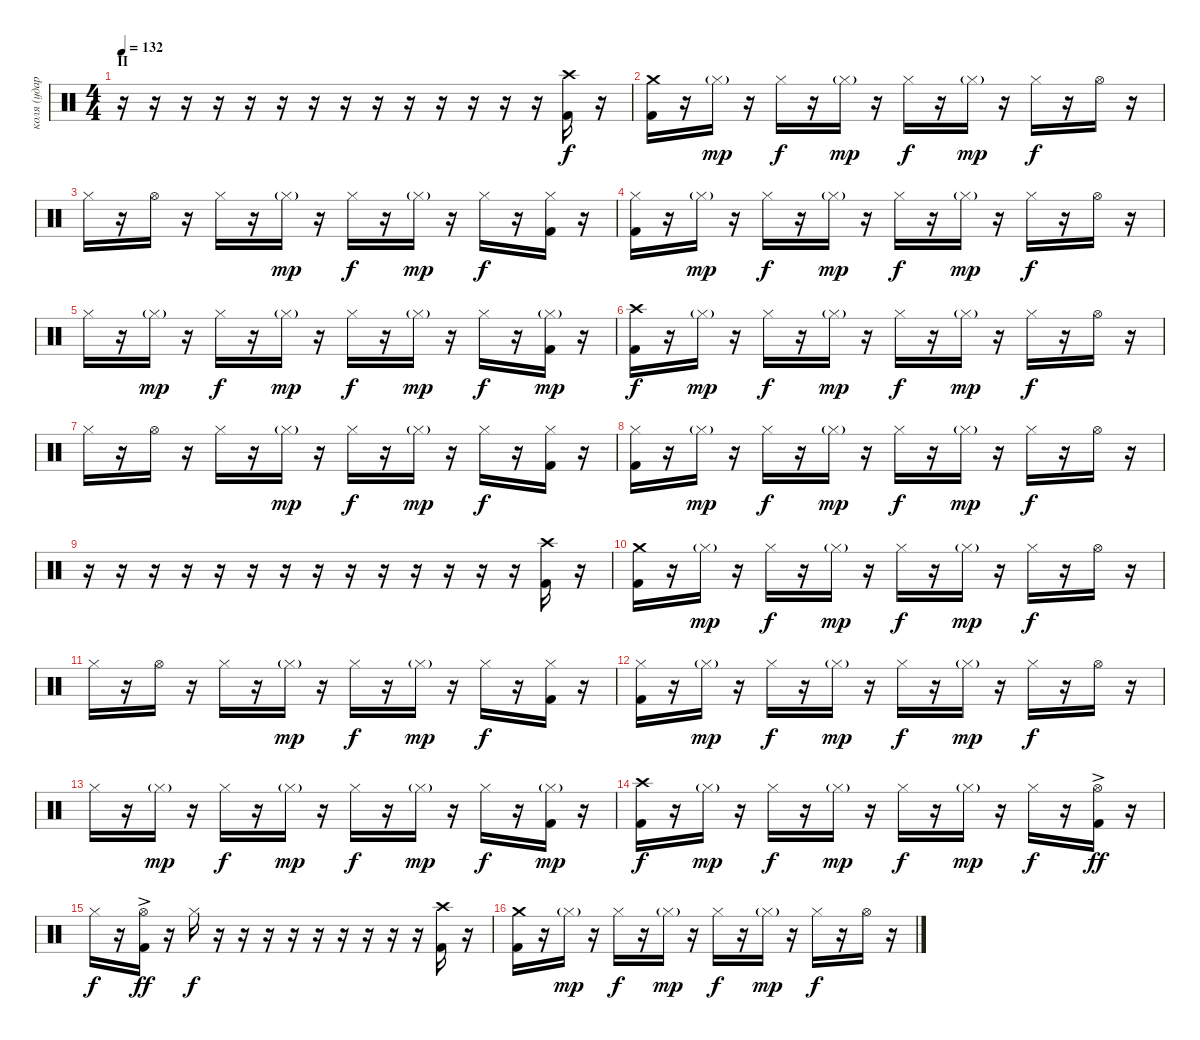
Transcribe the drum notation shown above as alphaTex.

\track ("коля (ударные)" "коля (удар") {instrument percussion}
\staff {score}
\articulation defaults
\ts (4 4)
\section ("" "II")
\tempo 132
\clef neutral
\ks c
r.16{dy f} r.16 r.16 r.16 r.16 r.16 r.16 r.16 r.16 r.16 r.16 r.16 r.16 r.16 ("Kick (hit) 2" "Crash high (hit)").16 r.16 |
("Kick (hit) 2" "Crash medium (hit)").16 r.16 "Hi-Hat (closed)"{g}.16{dy mp} r.16 "Hi-Hat (closed)".16{dy f} r.16 "Hi-Hat (closed)"{g}.16{dy mp} r.16 "Hi-Hat (closed)".16{dy f} r.16 "Hi-Hat (closed)"{g}.16{dy mp} r.16 "Hi-Hat (closed)".16{dy f} r.16 "Hi-Hat (open)".16 r.16 |
"Hi-Hat (closed)".16 r.16 "Hi-Hat (open)".16 r.16 "Hi-Hat (closed)".16 r.16 "Hi-Hat (closed)"{g}.16{dy mp} r.16 "Hi-Hat (closed)".16{dy f} r.16 "Hi-Hat (closed)"{g}.16{dy mp} r.16 "Hi-Hat (closed)".16{dy f} r.16 ("Kick (hit) 2" "Hi-Hat (closed)").16 r.16 |
("Kick (hit) 2" "Hi-Hat (closed)").16 r.16 "Hi-Hat (closed)"{g}.16{dy mp} r.16 "Hi-Hat (closed)".16{dy f} r.16 "Hi-Hat (closed)"{g}.16{dy mp} r.16 "Hi-Hat (closed)".16{dy f} r.16 "Hi-Hat (closed)"{g}.16{dy mp} r.16 "Hi-Hat (closed)".16{dy f} r.16 "Hi-Hat (open)".16 r.16 |
"Hi-Hat (closed)".16 r.16 "Hi-Hat (closed)"{g}.16{dy mp} r.16 "Hi-Hat (closed)".16{dy f} r.16 "Hi-Hat (closed)"{g}.16{dy mp} r.16 "Hi-Hat (closed)".16{dy f} r.16 "Hi-Hat (closed)"{g}.16{dy mp} r.16 "Hi-Hat (closed)".16{dy f} r.16 ("Kick (hit) 2" "Hi-Hat (closed)"{g}).16{dy mp} r.16 |
("Kick (hit) 2" "Crash high (hit)").16{dy f} r.16 "Hi-Hat (closed)"{g}.16{dy mp} r.16 "Hi-Hat (closed)".16{dy f} r.16 "Hi-Hat (closed)"{g}.16{dy mp} r.16 "Hi-Hat (closed)".16{dy f} r.16 "Hi-Hat (closed)"{g}.16{dy mp} r.16 "Hi-Hat (closed)".16{dy f} r.16 "Hi-Hat (open)".16 r.16 |
"Hi-Hat (closed)".16 r.16 "Hi-Hat (open)".16 r.16 "Hi-Hat (closed)".16 r.16 "Hi-Hat (closed)"{g}.16{dy mp} r.16 "Hi-Hat (closed)".16{dy f} r.16 "Hi-Hat (closed)"{g}.16{dy mp} r.16 "Hi-Hat (closed)".16{dy f} r.16 ("Kick (hit) 2" "Hi-Hat (closed)").16 r.16 |
("Kick (hit) 2" "Hi-Hat (closed)").16 r.16 "Hi-Hat (closed)"{g}.16{dy mp} r.16 "Hi-Hat (closed)".16{dy f} r.16 "Hi-Hat (closed)"{g}.16{dy mp} r.16 "Hi-Hat (closed)".16{dy f} r.16 "Hi-Hat (closed)"{g}.16{dy mp} r.16 "Hi-Hat (closed)".16{dy f} r.16 "Hi-Hat (open)".16 r.16 |
r.16 r.16 r.16 r.16 r.16 r.16 r.16 r.16 r.16 r.16 r.16 r.16 r.16 r.16 ("Kick (hit) 2" "Crash high (hit)").16 r.16 |
("Kick (hit) 2" "Crash medium (hit)").16 r.16 "Hi-Hat (closed)"{g}.16{dy mp} r.16 "Hi-Hat (closed)".16{dy f} r.16 "Hi-Hat (closed)"{g}.16{dy mp} r.16 "Hi-Hat (closed)".16{dy f} r.16 "Hi-Hat (closed)"{g}.16{dy mp} r.16 "Hi-Hat (closed)".16{dy f} r.16 "Hi-Hat (open)".16 r.16 |
"Hi-Hat (closed)".16 r.16 "Hi-Hat (open)".16 r.16 "Hi-Hat (closed)".16 r.16 "Hi-Hat (closed)"{g}.16{dy mp} r.16 "Hi-Hat (closed)".16{dy f} r.16 "Hi-Hat (closed)"{g}.16{dy mp} r.16 "Hi-Hat (closed)".16{dy f} r.16 ("Kick (hit) 2" "Hi-Hat (closed)").16 r.16 |
("Kick (hit) 2" "Hi-Hat (closed)").16 r.16 "Hi-Hat (closed)"{g}.16{dy mp} r.16 "Hi-Hat (closed)".16{dy f} r.16 "Hi-Hat (closed)"{g}.16{dy mp} r.16 "Hi-Hat (closed)".16{dy f} r.16 "Hi-Hat (closed)"{g}.16{dy mp} r.16 "Hi-Hat (closed)".16{dy f} r.16 "Hi-Hat (open)".16 r.16 |
"Hi-Hat (closed)".16 r.16 "Hi-Hat (closed)"{g}.16{dy mp} r.16 "Hi-Hat (closed)".16{dy f} r.16 "Hi-Hat (closed)"{g}.16{dy mp} r.16 "Hi-Hat (closed)".16{dy f} r.16 "Hi-Hat (closed)"{g}.16{dy mp} r.16 "Hi-Hat (closed)".16{dy f} r.16 ("Kick (hit) 2" "Hi-Hat (closed)"{g}).16{dy mp} r.16 |
("Kick (hit) 2" "Crash high (hit)").16{dy f} r.16 "Hi-Hat (closed)"{g}.16{dy mp} r.16 "Hi-Hat (closed)".16{dy f} r.16 "Hi-Hat (closed)"{g}.16{dy mp} r.16 "Hi-Hat (closed)".16{dy f} r.16 "Hi-Hat (closed)"{g}.16{dy mp} r.16 "Hi-Hat (closed)".16{dy f} r.16 ("Kick (hit) 2" "Hi-Hat (open)"{ac}).16{dy ff} r.16 |
"Hi-Hat (closed)".16{dy f} r.16 ("Kick (hit) 2" "Hi-Hat (open)"{ac}).16{dy ff} r.16 "Hi-Hat (closed)".16{dy f} r.16 r.16 r.16 r.16 r.16 r.16 r.16 r.16 r.16 ("Kick (hit) 2" "Crash high (hit)").16 r.16 |
("Kick (hit) 2" "Crash medium (hit)").16 r.16 "Hi-Hat (closed)"{g}.16{dy mp} r.16 "Hi-Hat (closed)".16{dy f} r.16 "Hi-Hat (closed)"{g}.16{dy mp} r.16 "Hi-Hat (closed)".16{dy f} r.16 "Hi-Hat (closed)"{g}.16{dy mp} r.16 "Hi-Hat (closed)".16{dy f} r.16 "Hi-Hat (open)".16 r.16
